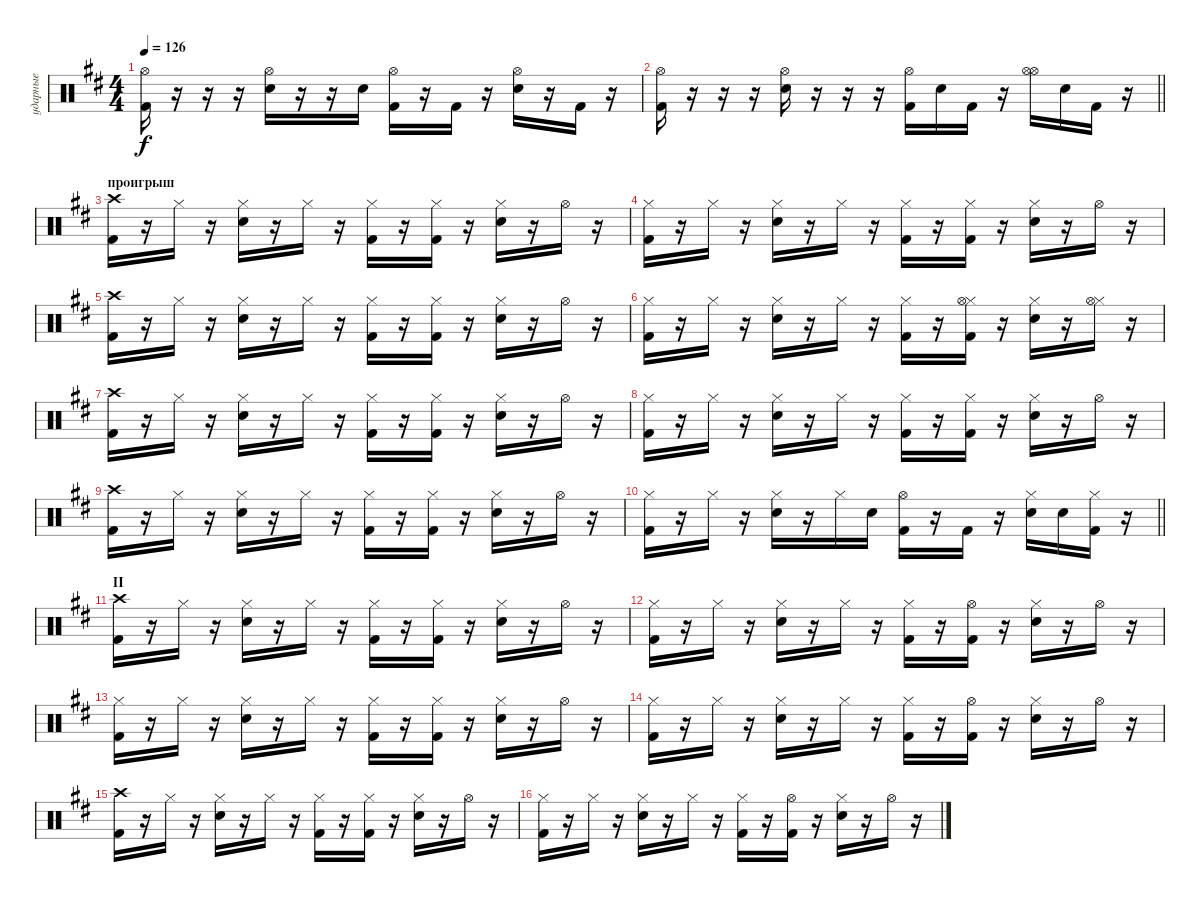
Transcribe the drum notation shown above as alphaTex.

\track ("ударные" "ударные") {instrument percussion}
\staff {score}
\articulation defaults
\ts (4 4)
\tempo 126
\clef neutral
\ks d
("Hi-Hat (open)" "Kick (hit) 2").16{dy f} r.16 r.16 r.16 ("Hi-Hat (open)" "Electric Snare (hit)").16 r.16 r.16 "Electric Snare (hit)".16 ("Hi-Hat (open)" "Kick (hit) 2").16 r.16 "Kick (hit) 2".16 r.16 ("Hi-Hat (open)" "Electric Snare (hit)").16 r.16 "Kick (hit) 2".16 r.16 |
\barLineRight lightlight
("Hi-Hat (open)" "Kick (hit) 2").16 r.16 r.16 r.16 ("Hi-Hat (open)" "Electric Snare (hit)").16 r.16 r.16 r.16 ("Hi-Hat (open)" "Kick (hit) 2").16 "Electric Snare (hit)".16 "Kick (hit) 2".16 r.16 ("Hi-Hat (open)" "Hi-Hat (open)").16 "Electric Snare (hit)".16 "Kick (hit) 2".16 r.16 |
\section ("" "проигрыш")
("Crash high (hit)" "Kick (hit) 2").16 r.16 "Hi-Hat (closed)".16 r.16 ("Hi-Hat (closed)" "Electric Snare (hit)").16 r.16 "Hi-Hat (closed)".16 r.16 ("Hi-Hat (closed)" "Kick (hit) 2").16 r.16 ("Hi-Hat (closed)" "Kick (hit) 2").16 r.16 ("Hi-Hat (closed)" "Electric Snare (hit)").16 r.16 "Hi-Hat (open)".16 r.16 |
("Hi-Hat (closed)" "Kick (hit) 2").16 r.16 "Hi-Hat (closed)".16 r.16 ("Hi-Hat (closed)" "Electric Snare (hit)").16 r.16 "Hi-Hat (closed)".16 r.16 ("Hi-Hat (closed)" "Kick (hit) 2").16 r.16 ("Hi-Hat (closed)" "Kick (hit) 2").16 r.16 ("Hi-Hat (closed)" "Electric Snare (hit)").16 r.16 "Hi-Hat (open)".16 r.16 |
("Crash high (hit)" "Kick (hit) 2").16 r.16 "Hi-Hat (closed)".16 r.16 ("Hi-Hat (closed)" "Electric Snare (hit)").16 r.16 "Hi-Hat (closed)".16 r.16 ("Hi-Hat (closed)" "Kick (hit) 2").16 r.16 ("Hi-Hat (closed)" "Kick (hit) 2").16 r.16 ("Hi-Hat (closed)" "Electric Snare (hit)").16 r.16 "Hi-Hat (open)".16 r.16 |
("Hi-Hat (closed)" "Kick (hit) 2").16 r.16 "Hi-Hat (closed)".16 r.16 ("Hi-Hat (closed)" "Electric Snare (hit)").16 r.16 "Hi-Hat (closed)".16 r.16 ("Hi-Hat (closed)" "Kick (hit) 2").16 r.16 ("Hi-Hat (closed)" "Hi-Hat (open)" "Kick (hit) 2").16 r.16 ("Hi-Hat (closed)" "Electric Snare (hit)").16 r.16 ("Hi-Hat (closed)" "Hi-Hat (open)").16 r.16 |
("Crash high (hit)" "Kick (hit) 2").16 r.16 "Hi-Hat (closed)".16 r.16 ("Hi-Hat (closed)" "Electric Snare (hit)").16 r.16 "Hi-Hat (closed)".16 r.16 ("Hi-Hat (closed)" "Kick (hit) 2").16 r.16 ("Hi-Hat (closed)" "Kick (hit) 2").16 r.16 ("Hi-Hat (closed)" "Electric Snare (hit)").16 r.16 "Hi-Hat (open)".16 r.16 |
("Hi-Hat (closed)" "Kick (hit) 2").16 r.16 "Hi-Hat (closed)".16 r.16 ("Hi-Hat (closed)" "Electric Snare (hit)").16 r.16 "Hi-Hat (closed)".16 r.16 ("Hi-Hat (closed)" "Kick (hit) 2").16 r.16 ("Hi-Hat (closed)" "Kick (hit) 2").16 r.16 ("Hi-Hat (closed)" "Electric Snare (hit)").16 r.16 "Hi-Hat (open)".16 r.16 |
("Crash high (hit)" "Kick (hit) 2").16 r.16 "Hi-Hat (closed)".16 r.16 ("Hi-Hat (closed)" "Electric Snare (hit)").16 r.16 "Hi-Hat (closed)".16 r.16 ("Hi-Hat (closed)" "Kick (hit) 2").16 r.16 ("Hi-Hat (closed)" "Kick (hit) 2").16 r.16 ("Hi-Hat (closed)" "Electric Snare (hit)").16 r.16 "Hi-Hat (open)".16 r.16 |
\barLineRight lightlight
("Hi-Hat (closed)" "Kick (hit) 2").16 r.16 "Hi-Hat (closed)".16 r.16 ("Hi-Hat (closed)" "Electric Snare (hit)").16 r.16 "Hi-Hat (closed)".16 "Electric Snare (hit)".16 ("Hi-Hat (open)" "Kick (hit) 2").16 r.16 "Kick (hit) 2".16 r.16 ("Hi-Hat (closed)" "Electric Snare (hit)").16 "Electric Snare (hit)".16 ("Hi-Hat (closed)" "Kick (hit) 2").16 r.16 |
\section ("" "II")
("Crash high (hit)" "Kick (hit) 2").16 r.16 "Hi-Hat (closed)".16 r.16 ("Hi-Hat (closed)" "Electric Snare (hit)").16 r.16 "Hi-Hat (closed)".16 r.16 ("Hi-Hat (closed)" "Kick (hit) 2").16 r.16 ("Hi-Hat (closed)" "Kick (hit) 2").16 r.16 ("Hi-Hat (closed)" "Electric Snare (hit)").16 r.16 "Hi-Hat (open)".16 r.16 |
("Hi-Hat (closed)" "Kick (hit) 2").16 r.16 "Hi-Hat (closed)".16 r.16 ("Hi-Hat (closed)" "Electric Snare (hit)").16 r.16 "Hi-Hat (closed)".16 r.16 ("Hi-Hat (closed)" "Kick (hit) 2").16 r.16 ("Hi-Hat (open)" "Kick (hit) 2").16 r.16 ("Hi-Hat (closed)" "Electric Snare (hit)").16 r.16 "Hi-Hat (open)".16 r.16 |
("Hi-Hat (closed)" "Kick (hit) 2").16 r.16 "Hi-Hat (closed)".16 r.16 ("Hi-Hat (closed)" "Electric Snare (hit)").16 r.16 "Hi-Hat (closed)".16 r.16 ("Hi-Hat (closed)" "Kick (hit) 2").16 r.16 ("Hi-Hat (closed)" "Kick (hit) 2").16 r.16 ("Hi-Hat (closed)" "Electric Snare (hit)").16 r.16 "Hi-Hat (open)".16 r.16 |
("Hi-Hat (closed)" "Kick (hit) 2").16 r.16 "Hi-Hat (closed)".16 r.16 ("Hi-Hat (closed)" "Electric Snare (hit)").16 r.16 "Hi-Hat (closed)".16 r.16 ("Hi-Hat (closed)" "Kick (hit) 2").16 r.16 ("Hi-Hat (open)" "Kick (hit) 2").16 r.16 ("Hi-Hat (closed)" "Electric Snare (hit)").16 r.16 "Hi-Hat (open)".16 r.16 |
("Crash high (hit)" "Kick (hit) 2").16 r.16 "Hi-Hat (closed)".16 r.16 ("Hi-Hat (closed)" "Electric Snare (hit)").16 r.16 "Hi-Hat (closed)".16 r.16 ("Hi-Hat (closed)" "Kick (hit) 2").16 r.16 ("Hi-Hat (closed)" "Kick (hit) 2").16 r.16 ("Hi-Hat (closed)" "Electric Snare (hit)").16 r.16 "Hi-Hat (open)".16 r.16 |
("Hi-Hat (closed)" "Kick (hit) 2").16 r.16 "Hi-Hat (closed)".16 r.16 ("Hi-Hat (closed)" "Electric Snare (hit)").16 r.16 "Hi-Hat (closed)".16 r.16 ("Hi-Hat (closed)" "Kick (hit) 2").16 r.16 ("Hi-Hat (open)" "Kick (hit) 2").16 r.16 ("Hi-Hat (closed)" "Electric Snare (hit)").16 r.16 "Hi-Hat (open)".16 r.16
